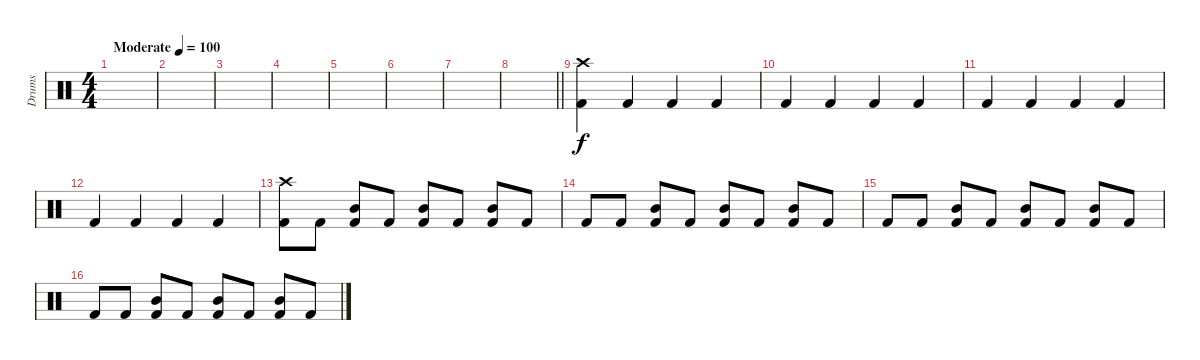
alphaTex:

\track ("Drums" "Drums") {instrument percussion}
\staff {score}
\articulation defaults
\ts (4 4)
\tempo (100 "Moderate")
\clef neutral
\ks c
|
|
|
|
|
|
|
\barLineRight lightlight
|
("Kick (hit) 2" "Crash high (hit)").4 "Kick (hit) 2".4 "Kick (hit) 2".4 "Kick (hit) 2".4 |
"Kick (hit) 2".4 "Kick (hit) 2".4 "Kick (hit) 2".4 "Kick (hit) 2".4 |
"Kick (hit) 2".4 "Kick (hit) 2".4 "Kick (hit) 2".4 "Kick (hit) 2".4 |
"Kick (hit) 2".4 "Kick (hit) 2".4 "Kick (hit) 2".4 "Kick (hit) 2".4 |
("Kick (hit) 2" "Crash high (hit)").8 "Kick (hit) 2".8 ("Kick (hit) 2" "Mid Tom (hit)").8 "Kick (hit) 2".8 ("Kick (hit) 2" "Mid Tom (hit)").8 "Kick (hit) 2".8 ("Kick (hit) 2" "Mid Tom (hit)").8 "Kick (hit) 2".8 |
"Kick (hit) 2".8 "Kick (hit) 2".8 ("Kick (hit) 2" "Mid Tom (hit)").8 "Kick (hit) 2".8 ("Kick (hit) 2" "Mid Tom (hit)").8 "Kick (hit) 2".8 ("Kick (hit) 2" "Mid Tom (hit)").8 "Kick (hit) 2".8 |
"Kick (hit) 2".8 "Kick (hit) 2".8 ("Kick (hit) 2" "Mid Tom (hit)").8 "Kick (hit) 2".8 ("Kick (hit) 2" "Mid Tom (hit)").8 "Kick (hit) 2".8 ("Kick (hit) 2" "Mid Tom (hit)").8 "Kick (hit) 2".8 |
"Kick (hit) 2".8 "Kick (hit) 2".8 ("Kick (hit) 2" "Mid Tom (hit)").8 "Kick (hit) 2".8 ("Kick (hit) 2" "Mid Tom (hit)").8 "Kick (hit) 2".8 ("Kick (hit) 2" "Mid Tom (hit)").8 "Kick (hit) 2".8
